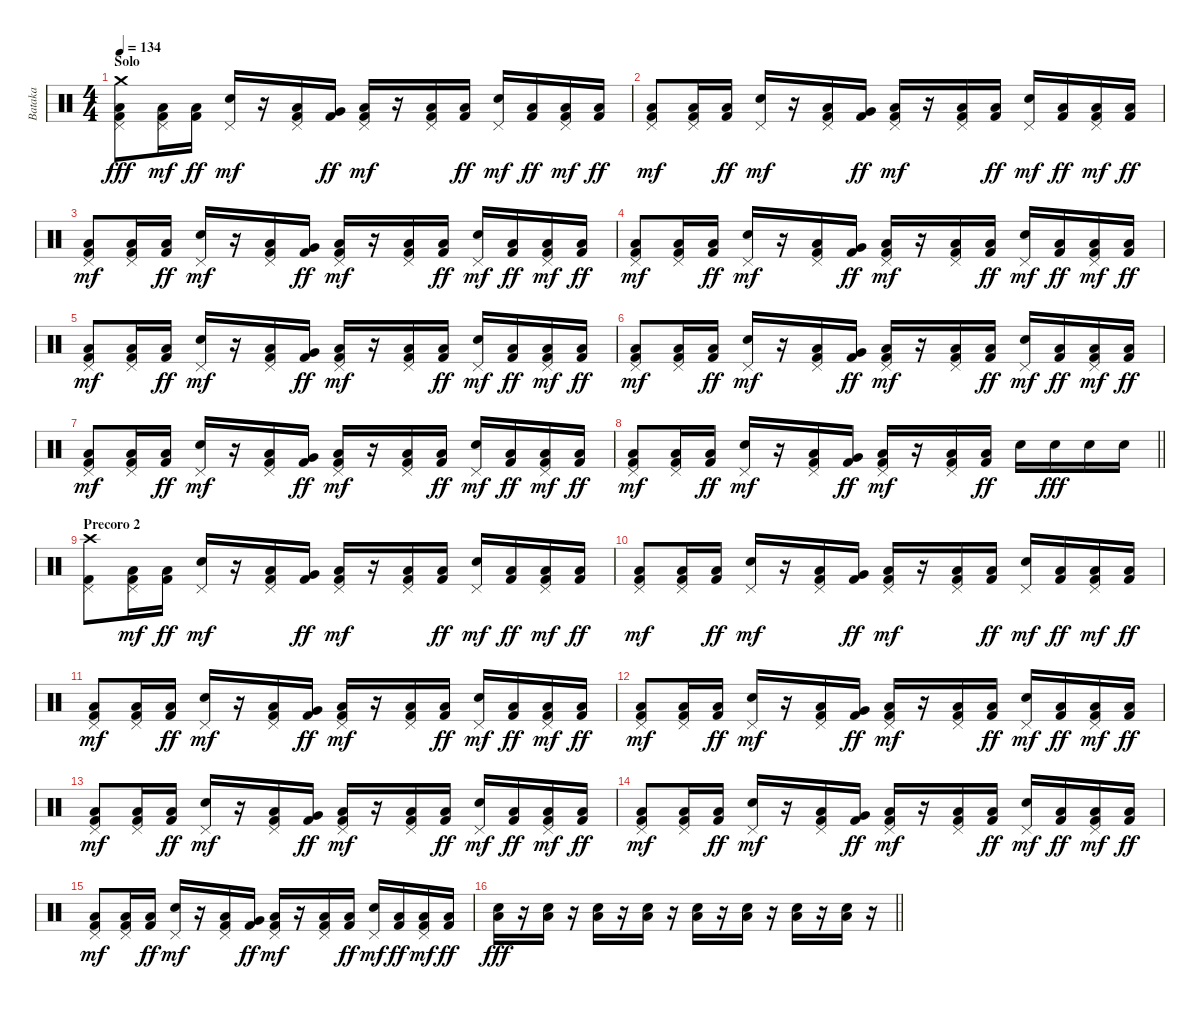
\track ("Bataka" "Bataka") {instrument percussion}
\staff {score}
\articulation defaults
\ts (4 4)
\section ("" "Solo")
\tempo 134
\clef neutral
\ks c
("Kick (hit) 2" "Low Floor Tom (hit)" "Pedal Hi-Hat (hit)" "Crash medium (hit)").8{dy fff} ("Kick (hit) 2" "Low Floor Tom (hit)" "Pedal Hi-Hat (hit)").16{dy mf} ("Kick (hit) 2" "Low Tom (hit)").16{dy ff} ("Snare (hit) 2" "Pedal Hi-Hat (hit)").16{dy mf} r.16 ("Kick (hit) 2" "Low Tom (hit)" "Pedal Hi-Hat (hit)").16 ("Kick (hit) 2" "Very Low Tom (hit)").16{dy ff} ("Kick (hit) 2" "Low Floor Tom (hit)" "Pedal Hi-Hat (hit)").16{dy mf} r.16 ("Kick (hit) 2" "Low Floor Tom (hit)" "Pedal Hi-Hat (hit)").16 ("Kick (hit) 2" "Low Tom (hit)").16{dy ff} ("Snare (hit) 2" "Pedal Hi-Hat (hit)").16{dy mf} ("Kick (hit) 2" "Low Tom (hit)").16{dy ff} ("Kick (hit) 2" "Low Tom (hit)" "Pedal Hi-Hat (hit)").16{dy mf} ("Kick (hit) 2" "Low Floor Tom (hit)").16{dy ff} |
("Kick (hit) 2" "Low Floor Tom (hit)" "Pedal Hi-Hat (hit)").8{dy mf} ("Kick (hit) 2" "Low Floor Tom (hit)" "Pedal Hi-Hat (hit)").16 ("Kick (hit) 2" "Low Tom (hit)").16{dy ff} ("Snare (hit) 2" "Pedal Hi-Hat (hit)").16{dy mf} r.16 ("Kick (hit) 2" "Low Tom (hit)" "Pedal Hi-Hat (hit)").16 ("Kick (hit) 2" "Very Low Tom (hit)").16{dy ff} ("Kick (hit) 2" "Low Floor Tom (hit)" "Pedal Hi-Hat (hit)").16{dy mf} r.16 ("Kick (hit) 2" "Low Floor Tom (hit)" "Pedal Hi-Hat (hit)").16 ("Kick (hit) 2" "Low Tom (hit)").16{dy ff} ("Snare (hit) 2" "Pedal Hi-Hat (hit)").16{dy mf} ("Kick (hit) 2" "Low Tom (hit)").16{dy ff} ("Kick (hit) 2" "Low Tom (hit)" "Pedal Hi-Hat (hit)").16{dy mf} ("Kick (hit) 2" "Low Floor Tom (hit)").16{dy ff} |
("Kick (hit) 2" "Low Floor Tom (hit)" "Pedal Hi-Hat (hit)").8{dy mf} ("Kick (hit) 2" "Low Floor Tom (hit)" "Pedal Hi-Hat (hit)").16 ("Kick (hit) 2" "Low Tom (hit)").16{dy ff} ("Snare (hit) 2" "Pedal Hi-Hat (hit)").16{dy mf} r.16 ("Kick (hit) 2" "Low Tom (hit)" "Pedal Hi-Hat (hit)").16 ("Kick (hit) 2" "Very Low Tom (hit)").16{dy ff} ("Kick (hit) 2" "Low Floor Tom (hit)" "Pedal Hi-Hat (hit)").16{dy mf} r.16 ("Kick (hit) 2" "Low Floor Tom (hit)" "Pedal Hi-Hat (hit)").16 ("Kick (hit) 2" "Low Tom (hit)").16{dy ff} ("Snare (hit) 2" "Pedal Hi-Hat (hit)").16{dy mf} ("Kick (hit) 2" "Low Tom (hit)").16{dy ff} ("Kick (hit) 2" "Low Tom (hit)" "Pedal Hi-Hat (hit)").16{dy mf} ("Kick (hit) 2" "Low Floor Tom (hit)").16{dy ff} |
("Kick (hit) 2" "Low Floor Tom (hit)" "Pedal Hi-Hat (hit)").8{dy mf} ("Kick (hit) 2" "Low Floor Tom (hit)" "Pedal Hi-Hat (hit)").16 ("Kick (hit) 2" "Low Tom (hit)").16{dy ff} ("Snare (hit) 2" "Pedal Hi-Hat (hit)").16{dy mf} r.16 ("Kick (hit) 2" "Low Tom (hit)" "Pedal Hi-Hat (hit)").16 ("Kick (hit) 2" "Very Low Tom (hit)").16{dy ff} ("Kick (hit) 2" "Low Floor Tom (hit)" "Pedal Hi-Hat (hit)").16{dy mf} r.16 ("Kick (hit) 2" "Low Floor Tom (hit)" "Pedal Hi-Hat (hit)").16 ("Kick (hit) 2" "Low Tom (hit)").16{dy ff} ("Snare (hit) 2" "Pedal Hi-Hat (hit)").16{dy mf} ("Kick (hit) 2" "Low Tom (hit)").16{dy ff} ("Kick (hit) 2" "Low Tom (hit)" "Pedal Hi-Hat (hit)").16{dy mf} ("Kick (hit) 2" "Low Floor Tom (hit)").16{dy ff} |
("Kick (hit) 2" "Low Floor Tom (hit)" "Pedal Hi-Hat (hit)").8{dy mf} ("Kick (hit) 2" "Low Floor Tom (hit)" "Pedal Hi-Hat (hit)").16 ("Kick (hit) 2" "Low Tom (hit)").16{dy ff} ("Snare (hit) 2" "Pedal Hi-Hat (hit)").16{dy mf} r.16 ("Kick (hit) 2" "Low Tom (hit)" "Pedal Hi-Hat (hit)").16 ("Kick (hit) 2" "Very Low Tom (hit)").16{dy ff} ("Kick (hit) 2" "Low Floor Tom (hit)" "Pedal Hi-Hat (hit)").16{dy mf} r.16 ("Kick (hit) 2" "Low Floor Tom (hit)" "Pedal Hi-Hat (hit)").16 ("Kick (hit) 2" "Low Tom (hit)").16{dy ff} ("Snare (hit) 2" "Pedal Hi-Hat (hit)").16{dy mf} ("Kick (hit) 2" "Low Tom (hit)").16{dy ff} ("Kick (hit) 2" "Low Tom (hit)" "Pedal Hi-Hat (hit)").16{dy mf} ("Kick (hit) 2" "Low Floor Tom (hit)").16{dy ff} |
("Kick (hit) 2" "Low Floor Tom (hit)" "Pedal Hi-Hat (hit)").8{dy mf} ("Kick (hit) 2" "Low Floor Tom (hit)" "Pedal Hi-Hat (hit)").16 ("Kick (hit) 2" "Low Tom (hit)").16{dy ff} ("Snare (hit) 2" "Pedal Hi-Hat (hit)").16{dy mf} r.16 ("Kick (hit) 2" "Low Tom (hit)" "Pedal Hi-Hat (hit)").16 ("Kick (hit) 2" "Very Low Tom (hit)").16{dy ff} ("Kick (hit) 2" "Low Floor Tom (hit)" "Pedal Hi-Hat (hit)").16{dy mf} r.16 ("Kick (hit) 2" "Low Floor Tom (hit)" "Pedal Hi-Hat (hit)").16 ("Kick (hit) 2" "Low Tom (hit)").16{dy ff} ("Snare (hit) 2" "Pedal Hi-Hat (hit)").16{dy mf} ("Kick (hit) 2" "Low Tom (hit)").16{dy ff} ("Kick (hit) 2" "Low Tom (hit)" "Pedal Hi-Hat (hit)").16{dy mf} ("Kick (hit) 2" "Low Floor Tom (hit)").16{dy ff} |
("Kick (hit) 2" "Low Floor Tom (hit)" "Pedal Hi-Hat (hit)").8{dy mf} ("Kick (hit) 2" "Low Floor Tom (hit)" "Pedal Hi-Hat (hit)").16 ("Kick (hit) 2" "Low Tom (hit)").16{dy ff} ("Snare (hit) 2" "Pedal Hi-Hat (hit)").16{dy mf} r.16 ("Kick (hit) 2" "Low Tom (hit)" "Pedal Hi-Hat (hit)").16 ("Kick (hit) 2" "Very Low Tom (hit)").16{dy ff} ("Kick (hit) 2" "Low Floor Tom (hit)" "Pedal Hi-Hat (hit)").16{dy mf} r.16 ("Kick (hit) 2" "Low Floor Tom (hit)" "Pedal Hi-Hat (hit)").16 ("Kick (hit) 2" "Low Tom (hit)").16{dy ff} ("Snare (hit) 2" "Pedal Hi-Hat (hit)").16{dy mf} ("Kick (hit) 2" "Low Tom (hit)").16{dy ff} ("Kick (hit) 2" "Low Tom (hit)" "Pedal Hi-Hat (hit)").16{dy mf} ("Kick (hit) 2" "Low Floor Tom (hit)").16{dy ff} |
\barLineRight lightlight
("Kick (hit) 2" "Low Floor Tom (hit)" "Pedal Hi-Hat (hit)").8{dy mf} ("Kick (hit) 2" "Low Floor Tom (hit)" "Pedal Hi-Hat (hit)").16 ("Kick (hit) 2" "Low Tom (hit)").16{dy ff} ("Snare (hit) 2" "Pedal Hi-Hat (hit)").16{dy mf} r.16 ("Kick (hit) 2" "Low Tom (hit)" "Pedal Hi-Hat (hit)").16 ("Kick (hit) 2" "Very Low Tom (hit)").16{dy ff} ("Kick (hit) 2" "Low Floor Tom (hit)" "Pedal Hi-Hat (hit)").16{dy mf} r.16 ("Kick (hit) 2" "Low Floor Tom (hit)" "Pedal Hi-Hat (hit)").16 ("Kick (hit) 2" "Low Tom (hit)").16{dy ff} "Snare (hit) 2".16 "Snare (hit) 2".16{dy fff} "Snare (hit) 2".16 "Snare (hit) 2".16 |
\section ("" "Precoro 2")
("Kick (hit) 2" "Pedal Hi-Hat (hit)" "Crash high (hit)").8 ("Kick (hit) 2" "Low Floor Tom (hit)" "Pedal Hi-Hat (hit)").16{dy mf} ("Kick (hit) 2" "Low Tom (hit)").16{dy ff} ("Snare (hit) 2" "Pedal Hi-Hat (hit)").16{dy mf} r.16 ("Kick (hit) 2" "Low Tom (hit)" "Pedal Hi-Hat (hit)").16 ("Kick (hit) 2" "Very Low Tom (hit)").16{dy ff} ("Kick (hit) 2" "Low Floor Tom (hit)" "Pedal Hi-Hat (hit)").16{dy mf} r.16 ("Kick (hit) 2" "Low Floor Tom (hit)" "Pedal Hi-Hat (hit)").16 ("Kick (hit) 2" "Low Tom (hit)").16{dy ff} ("Snare (hit) 2" "Pedal Hi-Hat (hit)").16{dy mf} ("Kick (hit) 2" "Low Tom (hit)").16{dy ff} ("Kick (hit) 2" "Low Tom (hit)" "Pedal Hi-Hat (hit)").16{dy mf} ("Kick (hit) 2" "Low Floor Tom (hit)").16{dy ff} |
("Kick (hit) 2" "Low Floor Tom (hit)" "Pedal Hi-Hat (hit)").8{dy mf} ("Kick (hit) 2" "Low Floor Tom (hit)" "Pedal Hi-Hat (hit)").16 ("Kick (hit) 2" "Low Tom (hit)").16{dy ff} ("Snare (hit) 2" "Pedal Hi-Hat (hit)").16{dy mf} r.16 ("Kick (hit) 2" "Low Tom (hit)" "Pedal Hi-Hat (hit)").16 ("Kick (hit) 2" "Very Low Tom (hit)").16{dy ff} ("Kick (hit) 2" "Low Floor Tom (hit)" "Pedal Hi-Hat (hit)").16{dy mf} r.16 ("Kick (hit) 2" "Low Floor Tom (hit)" "Pedal Hi-Hat (hit)").16 ("Kick (hit) 2" "Low Tom (hit)").16{dy ff} ("Snare (hit) 2" "Pedal Hi-Hat (hit)").16{dy mf} ("Kick (hit) 2" "Low Tom (hit)").16{dy ff} ("Kick (hit) 2" "Low Tom (hit)" "Pedal Hi-Hat (hit)").16{dy mf} ("Kick (hit) 2" "Low Floor Tom (hit)").16{dy ff} |
("Kick (hit) 2" "Low Floor Tom (hit)" "Pedal Hi-Hat (hit)").8{dy mf} ("Kick (hit) 2" "Low Floor Tom (hit)" "Pedal Hi-Hat (hit)").16 ("Kick (hit) 2" "Low Tom (hit)").16{dy ff} ("Snare (hit) 2" "Pedal Hi-Hat (hit)").16{dy mf} r.16 ("Kick (hit) 2" "Low Tom (hit)" "Pedal Hi-Hat (hit)").16 ("Kick (hit) 2" "Very Low Tom (hit)").16{dy ff} ("Kick (hit) 2" "Low Floor Tom (hit)" "Pedal Hi-Hat (hit)").16{dy mf} r.16 ("Kick (hit) 2" "Low Floor Tom (hit)" "Pedal Hi-Hat (hit)").16 ("Kick (hit) 2" "Low Tom (hit)").16{dy ff} ("Snare (hit) 2" "Pedal Hi-Hat (hit)").16{dy mf} ("Kick (hit) 2" "Low Tom (hit)").16{dy ff} ("Kick (hit) 2" "Low Tom (hit)" "Pedal Hi-Hat (hit)").16{dy mf} ("Kick (hit) 2" "Low Floor Tom (hit)").16{dy ff} |
("Kick (hit) 2" "Low Floor Tom (hit)" "Pedal Hi-Hat (hit)").8{dy mf} ("Kick (hit) 2" "Low Floor Tom (hit)" "Pedal Hi-Hat (hit)").16 ("Kick (hit) 2" "Low Tom (hit)").16{dy ff} ("Snare (hit) 2" "Pedal Hi-Hat (hit)").16{dy mf} r.16 ("Kick (hit) 2" "Low Tom (hit)" "Pedal Hi-Hat (hit)").16 ("Kick (hit) 2" "Very Low Tom (hit)").16{dy ff} ("Kick (hit) 2" "Low Floor Tom (hit)" "Pedal Hi-Hat (hit)").16{dy mf} r.16 ("Kick (hit) 2" "Low Floor Tom (hit)" "Pedal Hi-Hat (hit)").16 ("Kick (hit) 2" "Low Tom (hit)").16{dy ff} ("Snare (hit) 2" "Pedal Hi-Hat (hit)").16{dy mf} ("Kick (hit) 2" "Low Tom (hit)").16{dy ff} ("Kick (hit) 2" "Low Tom (hit)" "Pedal Hi-Hat (hit)").16{dy mf} ("Kick (hit) 2" "Low Floor Tom (hit)").16{dy ff} |
("Kick (hit) 2" "Low Floor Tom (hit)" "Pedal Hi-Hat (hit)").8{dy mf} ("Kick (hit) 2" "Low Floor Tom (hit)" "Pedal Hi-Hat (hit)").16 ("Kick (hit) 2" "Low Tom (hit)").16{dy ff} ("Snare (hit) 2" "Pedal Hi-Hat (hit)").16{dy mf} r.16 ("Kick (hit) 2" "Low Tom (hit)" "Pedal Hi-Hat (hit)").16 ("Kick (hit) 2" "Very Low Tom (hit)").16{dy ff} ("Kick (hit) 2" "Low Floor Tom (hit)" "Pedal Hi-Hat (hit)").16{dy mf} r.16 ("Kick (hit) 2" "Low Floor Tom (hit)" "Pedal Hi-Hat (hit)").16 ("Kick (hit) 2" "Low Tom (hit)").16{dy ff} ("Snare (hit) 2" "Pedal Hi-Hat (hit)").16{dy mf} ("Kick (hit) 2" "Low Tom (hit)").16{dy ff} ("Kick (hit) 2" "Low Tom (hit)" "Pedal Hi-Hat (hit)").16{dy mf} ("Kick (hit) 2" "Low Floor Tom (hit)").16{dy ff} |
("Kick (hit) 2" "Low Floor Tom (hit)" "Pedal Hi-Hat (hit)").8{dy mf} ("Kick (hit) 2" "Low Floor Tom (hit)" "Pedal Hi-Hat (hit)").16 ("Kick (hit) 2" "Low Tom (hit)").16{dy ff} ("Snare (hit) 2" "Pedal Hi-Hat (hit)").16{dy mf} r.16 ("Kick (hit) 2" "Low Tom (hit)" "Pedal Hi-Hat (hit)").16 ("Kick (hit) 2" "Very Low Tom (hit)").16{dy ff} ("Kick (hit) 2" "Low Floor Tom (hit)" "Pedal Hi-Hat (hit)").16{dy mf} r.16 ("Kick (hit) 2" "Low Floor Tom (hit)" "Pedal Hi-Hat (hit)").16 ("Kick (hit) 2" "Low Tom (hit)").16{dy ff} ("Snare (hit) 2" "Pedal Hi-Hat (hit)").16{dy mf} ("Kick (hit) 2" "Low Tom (hit)").16{dy ff} ("Kick (hit) 2" "Low Tom (hit)" "Pedal Hi-Hat (hit)").16{dy mf} ("Kick (hit) 2" "Low Floor Tom (hit)").16{dy ff} |
("Kick (hit) 2" "Low Floor Tom (hit)" "Pedal Hi-Hat (hit)").8{dy mf} ("Kick (hit) 2" "Low Floor Tom (hit)" "Pedal Hi-Hat (hit)").16 ("Kick (hit) 2" "Low Tom (hit)").16{dy ff} ("Snare (hit) 2" "Pedal Hi-Hat (hit)").16{dy mf} r.16 ("Kick (hit) 2" "Low Tom (hit)" "Pedal Hi-Hat (hit)").16 ("Kick (hit) 2" "Very Low Tom (hit)").16{dy ff} ("Kick (hit) 2" "Low Floor Tom (hit)" "Pedal Hi-Hat (hit)").16{dy mf} r.16 ("Kick (hit) 2" "Low Floor Tom (hit)" "Pedal Hi-Hat (hit)").16 ("Kick (hit) 2" "Low Tom (hit)").16{dy ff} ("Snare (hit) 2" "Pedal Hi-Hat (hit)").16{dy mf} ("Kick (hit) 2" "Low Tom (hit)").16{dy ff} ("Kick (hit) 2" "Low Tom (hit)" "Pedal Hi-Hat (hit)").16{dy mf} ("Kick (hit) 2" "Low Floor Tom (hit)").16{dy ff} |
\barLineRight lightlight
("Snare (hit) 2" "Low Floor Tom (hit)").16{dy fff volume 6} r.16 ("Snare (hit) 2" "Low Floor Tom (hit)").16{volume 13} r.16 ("Snare (hit) 2" "Low Floor Tom (hit)").16 r.16 ("Snare (hit) 2" "Low Floor Tom (hit)").16 r.16 ("Snare (hit) 2" "Low Floor Tom (hit)").16 r.16 ("Snare (hit) 2" "Low Floor Tom (hit)").16 r.16 ("Snare (hit) 2" "Low Floor Tom (hit)").16 r.16 ("Snare (hit) 2" "Low Floor Tom (hit)").16 r.16
